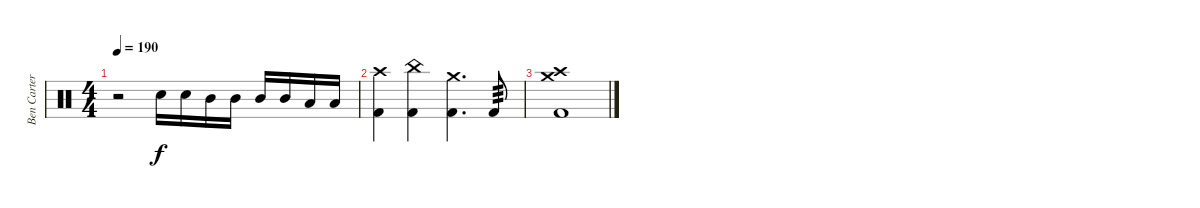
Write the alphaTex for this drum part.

\track ("Ben Carter" "Ben Carter") {instrument percussion}
\staff {score}
\articulation defaults
\ts (4 4)
\tempo 190
\clef neutral
\ks c
r.2{dy f} "Snare (hit) 2".16 "Snare (hit) 2".16 "Mid Tom (hit)".16 "Mid Tom (hit)".16 "Mid Tom (hit)".16 "Mid Tom (hit)".16 "Low Tom (hit)".16 "Low Tom (hit)".16 |
("Crash high (hit)" "Kick (hit) 2").4 ("China (hit)" "Kick (hit) 2").4 ("Crash medium (hit)" "Kick (hit) 2").4{d} "Kick (hit) 2".8{tp 3} |
("Crash medium (hit)" "Crash high (hit)" "Kick (hit) 2").1
